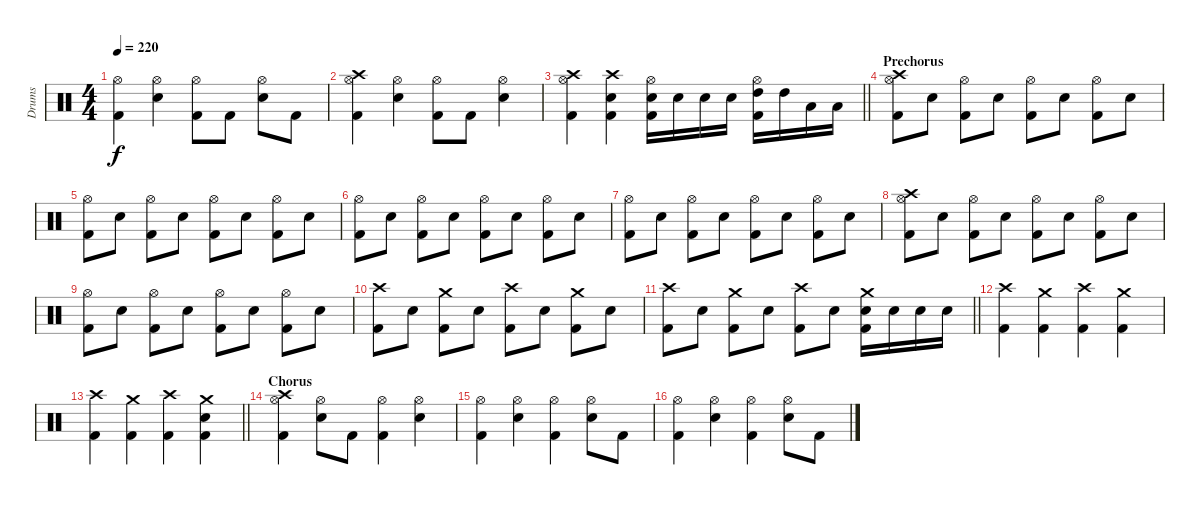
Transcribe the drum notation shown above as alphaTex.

\track ("Drums" "Drums") {instrument percussion}
\staff {score}
\articulation defaults
\ts (4 4)
\tempo 220
\clef neutral
\ks c
("Hi-Hat (open)" "Kick (hit) 2").4{dy f} ("Hi-Hat (open)" "Snare (hit) 2").4 ("Hi-Hat (open)" "Kick (hit) 2").8 "Kick (hit) 2".8 ("Hi-Hat (open)" "Snare (hit) 2").8 "Kick (hit) 2".8 |
("Crash high (hit)" "Hi-Hat (open)" "Kick (hit) 2").4 ("Hi-Hat (open)" "Snare (hit) 2").4 ("Hi-Hat (open)" "Kick (hit) 2").8 "Kick (hit) 2".8 ("Hi-Hat (open)" "Snare (hit) 2").4 |
\barLineRight lightlight
("Crash high (hit)" "Hi-Hat (open)" "Kick (hit) 2").4 ("Crash high (hit)" "Snare (hit) 2" "Kick (hit) 2").4 ("Hi-Hat (open)" "Snare (hit) 2" "Kick (hit) 2").16 "Snare (hit) 2".16 "Snare (hit) 2".16 "Snare (hit) 2".16 ("Hi-Hat (open)" "High Tom (hit)" "Kick (hit) 2").16 "High Tom (hit)".16 "Low Tom (hit)".16 "Low Tom (hit)".16 |
\section ("" "Prechorus")
("Crash high (hit)" "Hi-Hat (open)" "Kick (hit) 2").8 "Snare (hit) 2".8 ("Hi-Hat (open)" "Kick (hit) 2").8 "Snare (hit) 2".8 ("Hi-Hat (open)" "Kick (hit) 2").8 "Snare (hit) 2".8 ("Hi-Hat (open)" "Kick (hit) 2").8 "Snare (hit) 2".8 |
("Hi-Hat (open)" "Kick (hit) 2").8 "Snare (hit) 2".8 ("Hi-Hat (open)" "Kick (hit) 2").8 "Snare (hit) 2".8 ("Hi-Hat (open)" "Kick (hit) 2").8 "Snare (hit) 2".8 ("Hi-Hat (open)" "Kick (hit) 2").8 "Snare (hit) 2".8 |
("Hi-Hat (open)" "Kick (hit) 2").8 "Snare (hit) 2".8 ("Hi-Hat (open)" "Kick (hit) 2").8 "Snare (hit) 2".8 ("Hi-Hat (open)" "Kick (hit) 2").8 "Snare (hit) 2".8 ("Hi-Hat (open)" "Kick (hit) 2").8 "Snare (hit) 2".8 |
("Hi-Hat (open)" "Kick (hit) 2").8 "Snare (hit) 2".8 ("Hi-Hat (open)" "Kick (hit) 2").8 "Snare (hit) 2".8 ("Hi-Hat (open)" "Kick (hit) 2").8 "Snare (hit) 2".8 ("Hi-Hat (open)" "Kick (hit) 2").8 "Snare (hit) 2".8 |
("Crash high (hit)" "Hi-Hat (open)" "Kick (hit) 2").8 "Snare (hit) 2".8 ("Hi-Hat (open)" "Kick (hit) 2").8 "Snare (hit) 2".8 ("Hi-Hat (open)" "Kick (hit) 2").8 "Snare (hit) 2".8 ("Hi-Hat (open)" "Kick (hit) 2").8 "Snare (hit) 2".8 |
("Hi-Hat (open)" "Kick (hit) 2").8 "Snare (hit) 2".8 ("Hi-Hat (open)" "Kick (hit) 2").8 "Snare (hit) 2".8 ("Hi-Hat (open)" "Kick (hit) 2").8 "Snare (hit) 2".8 ("Hi-Hat (open)" "Kick (hit) 2").8 "Snare (hit) 2".8 |
("Crash high (hit)" "Kick (hit) 2").8 "Snare (hit) 2".8 ("Crash medium (hit)" "Kick (hit) 2").8 "Snare (hit) 2".8 ("Crash high (hit)" "Kick (hit) 2").8 "Snare (hit) 2".8 ("Crash medium (hit)" "Kick (hit) 2").8 "Snare (hit) 2".8 |
\barLineRight lightlight
("Crash high (hit)" "Kick (hit) 2").8 "Snare (hit) 2".8 ("Crash medium (hit)" "Kick (hit) 2").8 "Snare (hit) 2".8 ("Crash high (hit)" "Kick (hit) 2").8 "Snare (hit) 2".8 ("Crash medium (hit)" "Snare (hit) 2" "Kick (hit) 2").16 "Snare (hit) 2".16 "Snare (hit) 2".16 "Snare (hit) 2".16 |
("Crash high (hit)" "Kick (hit) 2").4 ("Crash medium (hit)" "Kick (hit) 2").4 ("Crash high (hit)" "Kick (hit) 2").4 ("Crash medium (hit)" "Kick (hit) 2").4 |
\barLineRight lightlight
("Crash high (hit)" "Kick (hit) 2").4 ("Crash medium (hit)" "Kick (hit) 2").4 ("Crash high (hit)" "Kick (hit) 2").4 ("Crash medium (hit)" "Snare (hit) 2" "Kick (hit) 2").4 |
\section ("" "Chorus")
("Crash high (hit)" "Hi-Hat (open)" "Kick (hit) 2").4 ("Hi-Hat (open)" "Snare (hit) 2").8 "Kick (hit) 2".8 ("Hi-Hat (open)" "Kick (hit) 2").4 ("Hi-Hat (open)" "Snare (hit) 2").4 |
("Hi-Hat (open)" "Kick (hit) 2").4 ("Hi-Hat (open)" "Snare (hit) 2").4 ("Hi-Hat (open)" "Kick (hit) 2").4 ("Hi-Hat (open)" "Snare (hit) 2").8 "Kick (hit) 2".8 |
("Hi-Hat (open)" "Kick (hit) 2").4 ("Hi-Hat (open)" "Snare (hit) 2").4 ("Hi-Hat (open)" "Kick (hit) 2").4 ("Hi-Hat (open)" "Snare (hit) 2").8 "Kick (hit) 2".8
